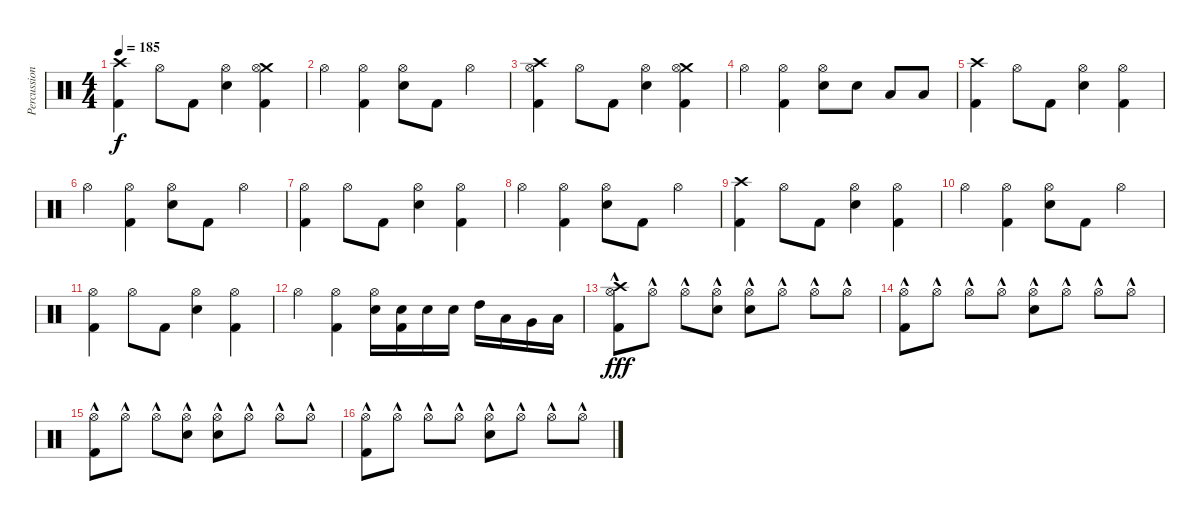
\track ("Percussion" "Percussion") {instrument percussion}
\staff {score}
\articulation defaults
\ts (4 4)
\tempo 185
\clef neutral
\ks c
("Crash high (hit)" "Kick (hit) 2").4{dy f} "Hi-Hat (open)".8 "Kick (hit) 2".8 ("Hi-Hat (open)" "Electric Snare (hit)").4 ("Crash medium (hit)" "Kick (hit) 2" "Hi-Hat (open)").4 |
"Hi-Hat (open)".4 ("Kick (hit) 2" "Hi-Hat (open)").4 ("Hi-Hat (open)" "Electric Snare (hit)").8 "Kick (hit) 2".8 "Hi-Hat (open)".4 |
("Crash high (hit)" "Hi-Hat (open)" "Kick (hit) 2").4 "Hi-Hat (open)".8 "Kick (hit) 2".8 ("Hi-Hat (open)" "Electric Snare (hit)").4 ("Crash medium (hit)" "Kick (hit) 2" "Hi-Hat (open)").4 |
"Hi-Hat (open)".4 ("Kick (hit) 2" "Hi-Hat (open)").4 ("Hi-Hat (open)" "Electric Snare (hit)").8 "Electric Snare (hit)".8 "Low Tom (hit)".8 "Low Floor Tom (hit)".8 |
("Crash high (hit)" "Kick (hit) 2").4 "Hi-Hat (open)".8 "Kick (hit) 2".8 ("Hi-Hat (open)" "Electric Snare (hit)").4 ("Kick (hit) 2" "Hi-Hat (open)").4 |
"Hi-Hat (open)".4 ("Kick (hit) 2" "Hi-Hat (open)").4 ("Hi-Hat (open)" "Electric Snare (hit)").8 "Kick (hit) 2".8 "Hi-Hat (open)".4 |
("Hi-Hat (open)" "Kick (hit) 2").4 "Hi-Hat (open)".8 "Kick (hit) 2".8 ("Hi-Hat (open)" "Electric Snare (hit)").4 ("Kick (hit) 2" "Hi-Hat (open)").4 |
"Hi-Hat (open)".4 ("Kick (hit) 2" "Hi-Hat (open)").4 ("Hi-Hat (open)" "Electric Snare (hit)").8 "Kick (hit) 2".8 "Hi-Hat (open)".4 |
("Crash high (hit)" "Kick (hit) 2").4 "Hi-Hat (open)".8 "Kick (hit) 2".8 ("Hi-Hat (open)" "Electric Snare (hit)").4 ("Kick (hit) 2" "Hi-Hat (open)").4 |
"Hi-Hat (open)".4 ("Kick (hit) 2" "Hi-Hat (open)").4 ("Hi-Hat (open)" "Electric Snare (hit)").8 "Kick (hit) 2".8 "Hi-Hat (open)".4 |
("Hi-Hat (open)" "Kick (hit) 2").4 "Hi-Hat (open)".8 "Kick (hit) 2".8 ("Hi-Hat (open)" "Electric Snare (hit)").4 ("Kick (hit) 2" "Hi-Hat (open)").4 |
"Hi-Hat (open)".4 ("Kick (hit) 2" "Hi-Hat (open)").4 ("Hi-Hat (open)" "Electric Snare (hit)").16 ("Kick (hit) 2" "Electric Snare (hit)").16 "Electric Snare (hit)".16 "Electric Snare (hit)".16 "High Tom (hit)".16 "Low Tom (hit)".16 "Very Low Tom (hit)".16 "Low Floor Tom (hit)".16 |
("Crash high (hit)"{hac} "Kick (hit) 2"{hac} "Hi-Hat (open)"{hac}).8{dy fff} "Hi-Hat (open)"{hac}.8 "Hi-Hat (open)"{hac}.8 ("Electric Snare (hit)"{hac} "Hi-Hat (open)"{hac}).8 ("Electric Snare (hit)"{hac} "Hi-Hat (open)"{hac}).8 "Hi-Hat (open)"{hac}.8 "Hi-Hat (open)"{hac}.8 "Hi-Hat (open)"{hac}.8 |
("Kick (hit) 2"{hac} "Hi-Hat (open)"{hac}).8 "Hi-Hat (open)"{hac}.8 "Hi-Hat (open)"{hac}.8 "Hi-Hat (open)"{hac}.8 ("Electric Snare (hit)"{hac} "Hi-Hat (open)"{hac}).8 "Hi-Hat (open)"{hac}.8 "Hi-Hat (open)"{hac}.8 "Hi-Hat (open)"{hac}.8 |
("Kick (hit) 2"{hac} "Hi-Hat (open)"{hac}).8 "Hi-Hat (open)"{hac}.8 "Hi-Hat (open)"{hac}.8 ("Electric Snare (hit)"{hac} "Hi-Hat (open)"{hac}).8 ("Electric Snare (hit)"{hac} "Hi-Hat (open)"{hac}).8 "Hi-Hat (open)"{hac}.8 "Hi-Hat (open)"{hac}.8 "Hi-Hat (open)"{hac}.8 |
("Kick (hit) 2"{hac} "Hi-Hat (open)"{hac}).8 "Hi-Hat (open)"{hac}.8 "Hi-Hat (open)"{hac}.8 "Hi-Hat (open)"{hac}.8 ("Electric Snare (hit)"{hac} "Hi-Hat (open)"{hac}).8 "Hi-Hat (open)"{hac}.8 "Hi-Hat (open)"{hac}.8 "Hi-Hat (open)"{hac}.8
